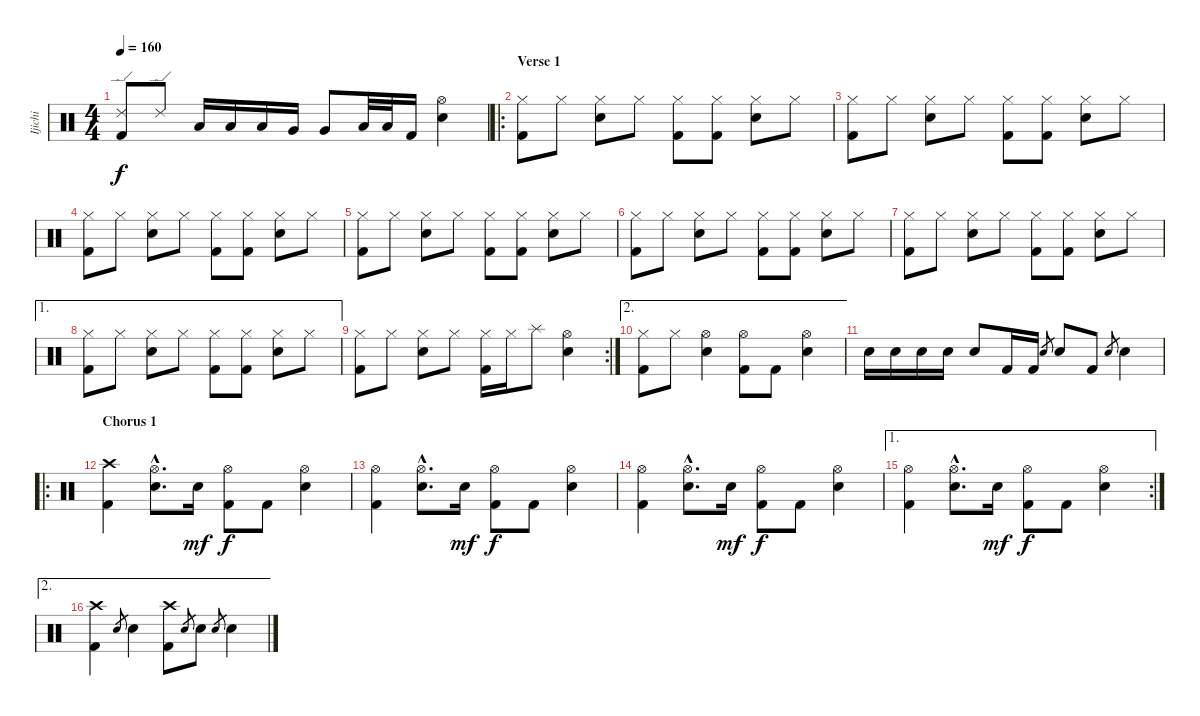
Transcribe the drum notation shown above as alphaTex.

\track ("Ijichi" "Ijichi") {instrument percussion}
\staff {score}
\articulation defaults
\ts (4 4)
\tempo 160
\clef neutral
\ks c
("Kick (hit) 2" "Ride (edge) 2").8{dy f} "Ride (edge) 2".8 "Low Tom (hit)".16 "Low Tom (hit)".16 "Low Tom (hit)".16 "Very Low Tom (hit)".16 "Very Low Tom (hit)".8 "Low Tom (hit)".32 "Low Tom (hit)".32 "Kick (hit) 2".16 ("Electric Snare (hit)" "Hi-Hat (open)").4 |
\ro
\section ("" "Verse 1")
("Kick (hit) 2" "Hi-Hat (closed)").8 "Hi-Hat (closed)".8 ("Electric Snare (hit)" "Hi-Hat (closed)").8 "Hi-Hat (closed)".8 ("Kick (hit) 2" "Hi-Hat (closed)").8 ("Kick (hit) 2" "Hi-Hat (closed)").8 ("Electric Snare (hit)" "Hi-Hat (closed)").8 "Hi-Hat (closed)".8 |
("Kick (hit) 2" "Hi-Hat (closed)").8 "Hi-Hat (closed)".8 ("Electric Snare (hit)" "Hi-Hat (closed)").8 "Hi-Hat (closed)".8 ("Kick (hit) 2" "Hi-Hat (closed)").8 ("Kick (hit) 2" "Hi-Hat (closed)").8 ("Electric Snare (hit)" "Hi-Hat (closed)").8 "Hi-Hat (closed)".8 |
("Kick (hit) 2" "Hi-Hat (closed)").8 "Hi-Hat (closed)".8 ("Electric Snare (hit)" "Hi-Hat (closed)").8 "Hi-Hat (closed)".8 ("Kick (hit) 2" "Hi-Hat (closed)").8 ("Kick (hit) 2" "Hi-Hat (closed)").8 ("Electric Snare (hit)" "Hi-Hat (closed)").8 "Hi-Hat (closed)".8 |
("Kick (hit) 2" "Hi-Hat (closed)").8 "Hi-Hat (closed)".8 ("Electric Snare (hit)" "Hi-Hat (closed)").8 "Hi-Hat (closed)".8 ("Kick (hit) 2" "Hi-Hat (closed)").8 ("Kick (hit) 2" "Hi-Hat (closed)").8 ("Electric Snare (hit)" "Hi-Hat (closed)").8 "Hi-Hat (closed)".8 |
("Kick (hit) 2" "Hi-Hat (closed)").8 "Hi-Hat (closed)".8 ("Electric Snare (hit)" "Hi-Hat (closed)").8 "Hi-Hat (closed)".8 ("Kick (hit) 2" "Hi-Hat (closed)").8 ("Kick (hit) 2" "Hi-Hat (closed)").8 ("Electric Snare (hit)" "Hi-Hat (closed)").8 "Hi-Hat (closed)".8 |
("Kick (hit) 2" "Hi-Hat (closed)").8 "Hi-Hat (closed)".8 ("Electric Snare (hit)" "Hi-Hat (closed)").8 "Hi-Hat (closed)".8 ("Kick (hit) 2" "Hi-Hat (closed)").8 ("Kick (hit) 2" "Hi-Hat (closed)").8 ("Electric Snare (hit)" "Hi-Hat (closed)").8 "Hi-Hat (closed)".8 |
\ae 1
("Kick (hit) 2" "Hi-Hat (closed)").8 "Hi-Hat (closed)".8 ("Electric Snare (hit)" "Hi-Hat (closed)").8 "Hi-Hat (closed)".8 ("Kick (hit) 2" "Hi-Hat (closed)").8 ("Kick (hit) 2" "Hi-Hat (closed)").8 ("Electric Snare (hit)" "Hi-Hat (closed)").8 "Hi-Hat (closed)".8 |
\rc 2
("Kick (hit) 2" "Hi-Hat (closed)").8 "Hi-Hat (closed)".8 ("Electric Snare (hit)" "Hi-Hat (closed)").8 "Hi-Hat (closed)".8 ("Kick (hit) 2" "Hi-Hat (closed)").16 "Hi-Hat (closed)".16 "Splash (hit)".8 ("Electric Snare (hit)" "Hi-Hat (open)").4 |
\ae 2
("Kick (hit) 2" "Hi-Hat (closed)").8 "Hi-Hat (closed)".8 ("Electric Snare (hit)" "Hi-Hat (open)").4 ("Kick (hit) 2" "Hi-Hat (open)").8 "Kick (hit) 2".8 ("Electric Snare (hit)" "Hi-Hat (open)").4 |
"Electric Snare (hit)".16 "Electric Snare (hit)".16 "Electric Snare (hit)".16 "Electric Snare (hit)".16 "Electric Snare (hit)".8 "Kick (hit) 2".16 "Kick (hit) 2".16 "Electric Snare (hit)".8{gr} "Electric Snare (hit)".8 "Kick (hit) 2".8 "Electric Snare (hit)".8{gr} "Electric Snare (hit)".4 |
\ro
\section ("" "Chorus 1")
("Kick (hit) 2" "Crash high (hit)").4 ("Electric Snare (hit)"{hac} "Hi-Hat (open)"{hac}).8{d} "Electric Snare (hit)".16{dy mf} ("Kick (hit) 2" "Hi-Hat (open)").8{dy f} "Kick (hit) 2".8 ("Electric Snare (hit)" "Hi-Hat (open)").4 |
("Kick (hit) 2" "Hi-Hat (open)").4 ("Electric Snare (hit)"{hac} "Hi-Hat (open)"{hac}).8{d} "Electric Snare (hit)".16{dy mf} ("Kick (hit) 2" "Hi-Hat (open)").8{dy f} "Kick (hit) 2".8 ("Electric Snare (hit)" "Hi-Hat (open)").4 |
("Kick (hit) 2" "Hi-Hat (open)").4 ("Electric Snare (hit)"{hac} "Hi-Hat (open)"{hac}).8{d} "Electric Snare (hit)".16{dy mf} ("Kick (hit) 2" "Hi-Hat (open)").8{dy f} "Kick (hit) 2".8 ("Electric Snare (hit)" "Hi-Hat (open)").4 |
\ae 1
\rc 2
("Kick (hit) 2" "Hi-Hat (open)").4 ("Electric Snare (hit)"{hac} "Hi-Hat (open)"{hac}).8{d} "Electric Snare (hit)".16{dy mf} ("Kick (hit) 2" "Hi-Hat (open)").8{dy f} "Kick (hit) 2".8 ("Electric Snare (hit)" "Hi-Hat (open)").4 |
\ae 2
("Kick (hit) 2" "Crash high (hit)").4 "Electric Snare (hit)".8{gr} "Electric Snare (hit)".4 ("Kick (hit) 2" "Crash high (hit)").8 "Electric Snare (hit)".8{gr} "Electric Snare (hit)".8 "Electric Snare (hit)".8{gr} "Electric Snare (hit)".4
